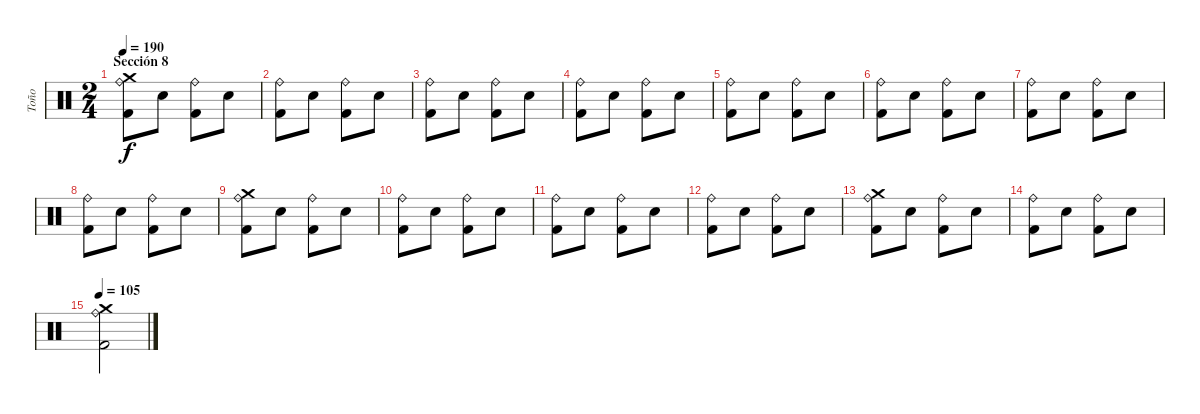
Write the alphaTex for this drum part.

\track ("Toño" "Toño") {instrument percussion}
\staff {score}
\articulation defaults
\ts (2 4)
\section ("" "Sección 8")
\tempo 190
\clef neutral
\ks c
("Ride (bell)" "Crash medium (hit)" "Kick (hit) 2").8{dy f} "Electric Snare (hit)".8 ("Ride (bell)" "Kick (hit) 2").8 "Electric Snare (hit)".8 |
("Ride (bell)" "Kick (hit) 2").8 "Electric Snare (hit)".8 ("Ride (bell)" "Kick (hit) 2").8 "Electric Snare (hit)".8 |
("Ride (bell)" "Kick (hit) 2").8 "Electric Snare (hit)".8 ("Ride (bell)" "Kick (hit) 2").8 "Electric Snare (hit)".8 |
("Ride (bell)" "Kick (hit) 2").8 "Electric Snare (hit)".8 ("Ride (bell)" "Kick (hit) 2").8 "Electric Snare (hit)".8 |
("Ride (bell)" "Kick (hit) 2").8 "Electric Snare (hit)".8 ("Ride (bell)" "Kick (hit) 2").8 "Electric Snare (hit)".8 |
("Ride (bell)" "Kick (hit) 2").8 "Electric Snare (hit)".8 ("Ride (bell)" "Kick (hit) 2").8 "Electric Snare (hit)".8 |
("Ride (bell)" "Kick (hit) 2").8 "Electric Snare (hit)".8 ("Ride (bell)" "Kick (hit) 2").8 "Electric Snare (hit)".8 |
("Ride (bell)" "Kick (hit) 2").8 "Electric Snare (hit)".8 ("Ride (bell)" "Kick (hit) 2").8 "Electric Snare (hit)".8 |
("Ride (bell)" "Crash medium (hit)" "Kick (hit) 2").8 "Electric Snare (hit)".8 ("Ride (bell)" "Kick (hit) 2").8 "Electric Snare (hit)".8 |
("Ride (bell)" "Kick (hit) 2").8 "Electric Snare (hit)".8 ("Ride (bell)" "Kick (hit) 2").8 "Electric Snare (hit)".8 |
("Ride (bell)" "Kick (hit) 2").8 "Electric Snare (hit)".8 ("Ride (bell)" "Kick (hit) 2").8 "Electric Snare (hit)".8 |
("Ride (bell)" "Kick (hit) 2").8 "Electric Snare (hit)".8 ("Ride (bell)" "Kick (hit) 2").8 "Electric Snare (hit)".8 |
("Ride (bell)" "Crash medium (hit)" "Kick (hit) 2").8 "Electric Snare (hit)".8 ("Ride (bell)" "Kick (hit) 2").8 "Electric Snare (hit)".8 |
("Ride (bell)" "Kick (hit) 2").8 "Electric Snare (hit)".8 ("Ride (bell)" "Kick (hit) 2").8 "Electric Snare (hit)".8 |
\tempo 105
("Ride (bell)" "Crash medium (hit)" "Kick (hit) 2").2
